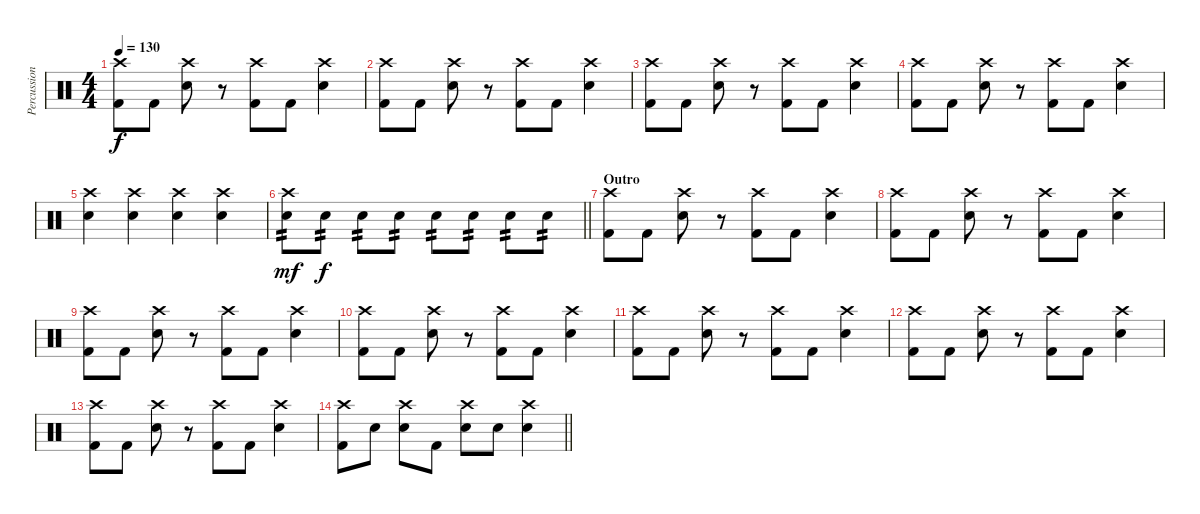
\track ("Percussion" "Percussion") {instrument percussion}
\staff {score}
\articulation defaults
\ts (4 4)
\tempo 130
\clef neutral
\ks c
("Crash high (hit)" "Kick (hit) 2").8{dy f} "Kick (hit) 2".8 ("Crash high (hit)" "Electric Snare (hit)").8 r.8 ("Crash high (hit)" "Kick (hit) 2").8 "Kick (hit) 2".8 ("Crash high (hit)" "Electric Snare (hit)").4 |
("Crash high (hit)" "Kick (hit) 2").8 "Kick (hit) 2".8 ("Crash high (hit)" "Electric Snare (hit)").8 r.8 ("Crash high (hit)" "Kick (hit) 2").8 "Kick (hit) 2".8 ("Crash high (hit)" "Electric Snare (hit)").4 |
("Crash high (hit)" "Kick (hit) 2").8 "Kick (hit) 2".8 ("Crash high (hit)" "Electric Snare (hit)").8 r.8 ("Crash high (hit)" "Kick (hit) 2").8 "Kick (hit) 2".8 ("Crash high (hit)" "Electric Snare (hit)").4 |
("Crash high (hit)" "Kick (hit) 2").8 "Kick (hit) 2".8 ("Crash high (hit)" "Electric Snare (hit)").8 r.8 ("Crash high (hit)" "Kick (hit) 2").8 "Kick (hit) 2".8 ("Crash high (hit)" "Electric Snare (hit)").4 |
("Crash high (hit)" "Electric Snare (hit)").4 ("Crash high (hit)" "Electric Snare (hit)").4 ("Crash high (hit)" "Electric Snare (hit)").4 ("Crash high (hit)" "Electric Snare (hit)").4 |
\barLineRight lightlight
("Electric Snare (hit)" "Crash high (hit)").8{tp 2 dy mf} "Electric Snare (hit)".8{tp 2 dy f} "Electric Snare (hit)".8{tp 2} "Electric Snare (hit)".8{tp 2} "Electric Snare (hit)".8{tp 2} "Electric Snare (hit)".8{tp 2} "Electric Snare (hit)".8{tp 2} "Electric Snare (hit)".8{tp 2} |
\section ("" "Outro")
("Crash high (hit)" "Kick (hit) 2").8 "Kick (hit) 2".8 ("Crash high (hit)" "Electric Snare (hit)").8 r.8 ("Crash high (hit)" "Kick (hit) 2").8 "Kick (hit) 2".8 ("Crash high (hit)" "Electric Snare (hit)").4 |
("Crash high (hit)" "Kick (hit) 2").8 "Kick (hit) 2".8 ("Crash high (hit)" "Electric Snare (hit)").8 r.8 ("Crash high (hit)" "Kick (hit) 2").8 "Kick (hit) 2".8 ("Crash high (hit)" "Electric Snare (hit)").4 |
("Crash high (hit)" "Kick (hit) 2").8 "Kick (hit) 2".8 ("Crash high (hit)" "Electric Snare (hit)").8 r.8 ("Crash high (hit)" "Kick (hit) 2").8 "Kick (hit) 2".8 ("Crash high (hit)" "Electric Snare (hit)").4 |
("Crash high (hit)" "Kick (hit) 2").8 "Kick (hit) 2".8 ("Crash high (hit)" "Electric Snare (hit)").8 r.8 ("Crash high (hit)" "Kick (hit) 2").8 "Kick (hit) 2".8 ("Crash high (hit)" "Electric Snare (hit)").4 |
("Crash high (hit)" "Kick (hit) 2").8 "Kick (hit) 2".8 ("Crash high (hit)" "Electric Snare (hit)").8 r.8 ("Crash high (hit)" "Kick (hit) 2").8 "Kick (hit) 2".8 ("Crash high (hit)" "Electric Snare (hit)").4 |
("Crash high (hit)" "Kick (hit) 2").8 "Kick (hit) 2".8 ("Crash high (hit)" "Electric Snare (hit)").8 r.8 ("Crash high (hit)" "Kick (hit) 2").8 "Kick (hit) 2".8 ("Crash high (hit)" "Electric Snare (hit)").4 |
("Crash high (hit)" "Kick (hit) 2").8 "Kick (hit) 2".8 ("Crash high (hit)" "Electric Snare (hit)").8 r.8 ("Crash high (hit)" "Kick (hit) 2").8 "Kick (hit) 2".8 ("Crash high (hit)" "Electric Snare (hit)").4 |
\barLineRight lightlight
("Crash high (hit)" "Kick (hit) 2").8 "Electric Snare (hit)".8 ("Crash high (hit)" "Electric Snare (hit)").8 "Kick (hit) 2".8 ("Crash high (hit)" "Electric Snare (hit)").8 "Electric Snare (hit)".8 ("Crash high (hit)" "Electric Snare (hit)").4
